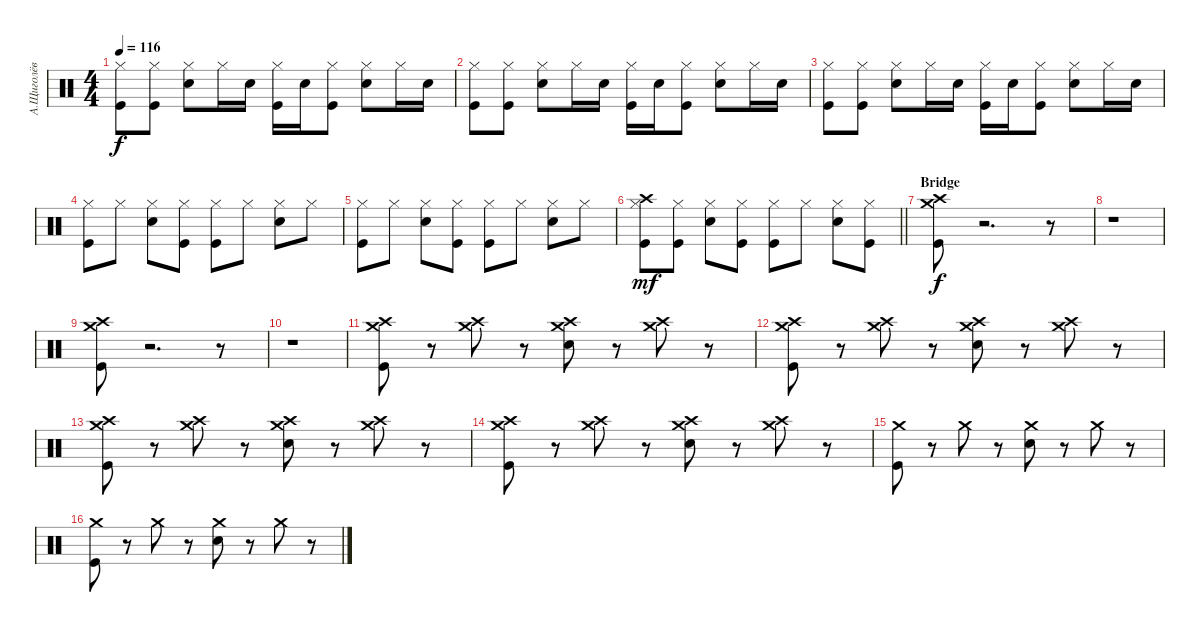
\track ("А.Щиголёв" "А.Щиголёв") {instrument percussion}
\staff {score}
\articulation defaults
\ts (4 4)
\tempo 116
\clef neutral
\ks c
("Hi-Hat (closed)" "Kick (hit)").8{dy f} ("Hi-Hat (closed)" "Kick (hit)").8 ("Hi-Hat (closed)" "Electric Snare (hit)").8 "Hi-Hat (closed)".16 "Electric Snare (hit)".16 ("Hi-Hat (closed)" "Kick (hit)").16 "Electric Snare (hit)".16 ("Hi-Hat (closed)" "Kick (hit)").8 ("Hi-Hat (closed)" "Electric Snare (hit)").8 "Hi-Hat (closed)".16 "Electric Snare (hit)".16 |
("Hi-Hat (closed)" "Kick (hit)").8 ("Hi-Hat (closed)" "Kick (hit)").8 ("Hi-Hat (closed)" "Electric Snare (hit)").8 "Hi-Hat (closed)".16 "Electric Snare (hit)".16 ("Hi-Hat (closed)" "Kick (hit)").16 "Electric Snare (hit)".16 ("Hi-Hat (closed)" "Kick (hit)").8 ("Hi-Hat (closed)" "Electric Snare (hit)").8 "Hi-Hat (closed)".16 "Electric Snare (hit)".16 |
("Hi-Hat (closed)" "Kick (hit)").8 ("Hi-Hat (closed)" "Kick (hit)").8 ("Hi-Hat (closed)" "Electric Snare (hit)").8 "Hi-Hat (closed)".16 "Electric Snare (hit)".16 ("Hi-Hat (closed)" "Kick (hit)").16 "Electric Snare (hit)".16 ("Hi-Hat (closed)" "Kick (hit)").8 ("Hi-Hat (closed)" "Electric Snare (hit)").8 "Hi-Hat (closed)".16 "Electric Snare (hit)".16 |
("Hi-Hat (closed)" "Kick (hit)").8 "Hi-Hat (closed)".8 ("Hi-Hat (closed)" "Electric Snare (hit)").8 ("Hi-Hat (closed)" "Kick (hit)").8 ("Hi-Hat (closed)" "Kick (hit)").8 "Hi-Hat (closed)".8 ("Hi-Hat (closed)" "Electric Snare (hit)").8 "Hi-Hat (closed)".8 |
("Hi-Hat (closed)" "Kick (hit)").8 "Hi-Hat (closed)".8 ("Hi-Hat (closed)" "Electric Snare (hit)").8 ("Hi-Hat (closed)" "Kick (hit)").8 ("Hi-Hat (closed)" "Kick (hit)").8 "Hi-Hat (closed)".8 ("Hi-Hat (closed)" "Electric Snare (hit)").8 "Hi-Hat (closed)".8 |
\barLineRight lightlight
("Crash high (hit)" "Kick (hit)" "Hi-Hat (closed)").8{dy mf} ("Kick (hit)" "Hi-Hat (closed)").8 ("Electric Snare (hit)" "Hi-Hat (closed)").8 ("Kick (hit)" "Hi-Hat (closed)").8 ("Kick (hit)" "Hi-Hat (closed)").8 "Hi-Hat (closed)".8 ("Electric Snare (hit)" "Hi-Hat (closed)").8 ("Kick (hit)" "Hi-Hat (closed)").8 |
\section ("" "Bridge")
("Crash high (hit)" "Kick (hit)" "Crash medium (hit)").8{dy f} r.2{d} r.8 |
r.1 |
("Kick (hit)" "Crash high (hit)" "Crash medium (hit)").8 r.2{d} r.8 |
r.1 |
("Crash high (hit)" "Kick (hit)" "Crash medium (hit)").8 r.8 ("Crash high (hit)" "Crash medium (hit)").8 r.8 ("Crash high (hit)" "Electric Snare (hit)" "Crash medium (hit)").8 r.8 ("Crash high (hit)" "Crash medium (hit)").8 r.8 |
("Crash high (hit)" "Crash medium (hit)" "Kick (hit)").8 r.8 ("Crash high (hit)" "Crash medium (hit)").8 r.8 ("Crash high (hit)" "Electric Snare (hit)" "Crash medium (hit)").8 r.8 ("Crash high (hit)" "Crash medium (hit)").8 r.8 |
("Crash high (hit)" "Kick (hit)" "Crash medium (hit)").8 r.8 ("Crash high (hit)" "Crash medium (hit)").8 r.8 ("Crash high (hit)" "Electric Snare (hit)" "Crash medium (hit)").8 r.8 ("Crash high (hit)" "Crash medium (hit)").8 r.8 |
("Crash high (hit)" "Crash medium (hit)" "Kick (hit)").8 r.8 ("Crash high (hit)" "Crash medium (hit)").8 r.8 ("Crash high (hit)" "Electric Snare (hit)" "Crash medium (hit)").8 r.8 ("Crash high (hit)" "Crash medium (hit)").8 r.8 |
("Kick (hit)" "Crash medium (hit)").8 r.8 "Crash medium (hit)".8 r.8 ("Electric Snare (hit)" "Crash medium (hit)").8 r.8 "Crash medium (hit)".8 r.8 |
("Kick (hit)" "Crash medium (hit)").8 r.8 "Crash medium (hit)".8 r.8 ("Crash medium (hit)" "Electric Snare (hit)").8 r.8 "Crash medium (hit)".8 r.8
